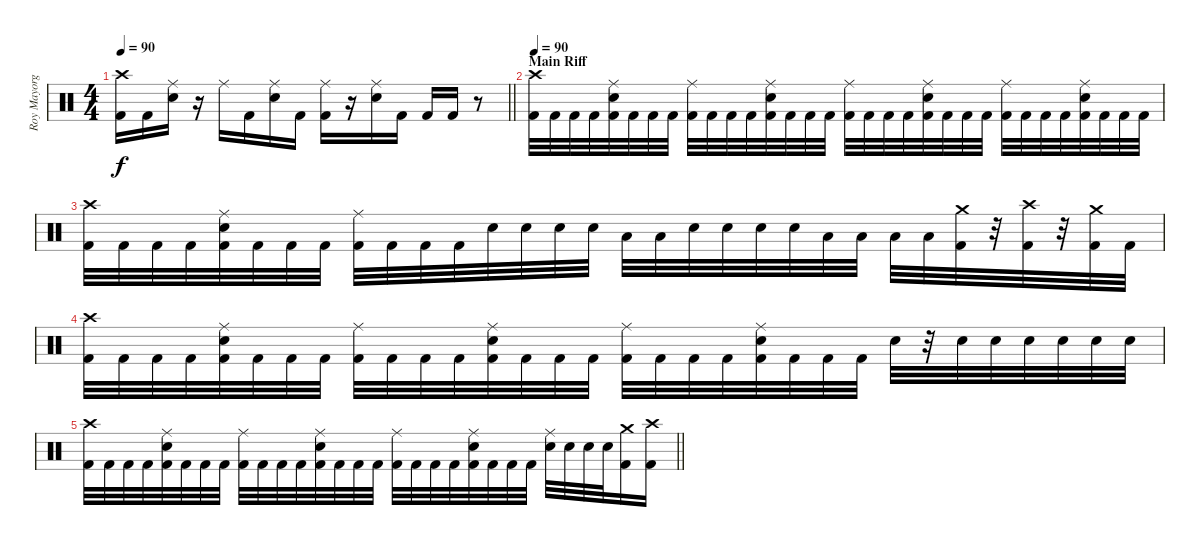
\track ("Roy Mayorga" "Roy Mayorg") {instrument percussion}
\staff {score}
\articulation defaults
\ts (4 4)
\tempo 90
\clef neutral
\barLineRight lightlight
\ks c
("Kick (hit) 2" "Crash high (hit)").16{dy f} "Kick (hit) 2".16 ("Electric Snare (hit)" "Ride (middle)").16 r.16 "Ride (middle)".16 "Kick (hit) 2".16 ("Electric Snare (hit)" "Ride (middle)").16 "Kick (hit) 2".16 ("Kick (hit) 2" "Ride (middle)").16 r.16 ("Electric Snare (hit)" "Ride (middle)").16 "Kick (hit) 2".16 "Kick (hit) 2".16 "Kick (hit) 2".16 r.8 |
\section ("" "Main Riff")
\tempo 90
("Kick (hit) 2" "Crash high (hit)").32 "Kick (hit) 2".32 "Kick (hit) 2".32 "Kick (hit) 2".32 ("Kick (hit) 2" "Electric Snare (hit)" "Ride (middle)").32 "Kick (hit) 2".32 "Kick (hit) 2".32 "Kick (hit) 2".32 ("Kick (hit) 2" "Ride (middle)").32 "Kick (hit) 2".32 "Kick (hit) 2".32 "Kick (hit) 2".32 ("Kick (hit) 2" "Electric Snare (hit)" "Ride (middle)").32 "Kick (hit) 2".32 "Kick (hit) 2".32 "Kick (hit) 2".32 ("Kick (hit) 2" "Ride (middle)").32 "Kick (hit) 2".32 "Kick (hit) 2".32 "Kick (hit) 2".32 ("Kick (hit) 2" "Electric Snare (hit)" "Ride (middle)").32 "Kick (hit) 2".32 "Kick (hit) 2".32 "Kick (hit) 2".32 ("Kick (hit) 2" "Ride (middle)").32 "Kick (hit) 2".32 "Kick (hit) 2".32 "Kick (hit) 2".32 ("Kick (hit) 2" "Electric Snare (hit)" "Ride (middle)").32 "Kick (hit) 2".32 "Kick (hit) 2".32 "Kick (hit) 2".32 |
("Kick (hit) 2" "Crash high (hit)").32 "Kick (hit) 2".32 "Kick (hit) 2".32 "Kick (hit) 2".32 ("Kick (hit) 2" "Electric Snare (hit)" "Ride (middle)").32 "Kick (hit) 2".32 "Kick (hit) 2".32 "Kick (hit) 2".32 ("Kick (hit) 2" "Ride (middle)").32 "Kick (hit) 2".32 "Kick (hit) 2".32 "Kick (hit) 2".32 "Electric Snare (hit)".32 "Electric Snare (hit)".32 "Electric Snare (hit)".32 "Electric Snare (hit)".32 "Low Tom (hit)".32 "Low Tom (hit)".32 "Electric Snare (hit)".32 "Electric Snare (hit)".32 "Electric Snare (hit)".32 "Electric Snare (hit)".32 "Low Tom (hit)".32 "Low Tom (hit)".32 "Low Tom (hit)".32 "Low Tom (hit)".32 ("Kick (hit) 2" "Crash medium (hit)").32 r.32 ("Kick (hit) 2" "Crash high (hit)").32 r.32 ("Kick (hit) 2" "Crash medium (hit)").32 "Kick (hit) 2".32 |
("Kick (hit) 2" "Crash high (hit)").32 "Kick (hit) 2".32 "Kick (hit) 2".32 "Kick (hit) 2".32 ("Kick (hit) 2" "Electric Snare (hit)" "Ride (middle)").32 "Kick (hit) 2".32 "Kick (hit) 2".32 "Kick (hit) 2".32 ("Kick (hit) 2" "Ride (middle)").32 "Kick (hit) 2".32 "Kick (hit) 2".32 "Kick (hit) 2".32 ("Kick (hit) 2" "Electric Snare (hit)" "Ride (middle)").32 "Kick (hit) 2".32 "Kick (hit) 2".32 "Kick (hit) 2".32 ("Kick (hit) 2" "Ride (middle)").32 "Kick (hit) 2".32 "Kick (hit) 2".32 "Kick (hit) 2".32 ("Kick (hit) 2" "Electric Snare (hit)" "Ride (middle)").32 "Kick (hit) 2".32 "Kick (hit) 2".32 "Kick (hit) 2".32 "Electric Snare (hit)".32 r.32 "Electric Snare (hit)".32 "Electric Snare (hit)".32 "Electric Snare (hit)".32 "Electric Snare (hit)".32 "Electric Snare (hit)".32 "Electric Snare (hit)".32 |
\barLineRight lightlight
("Kick (hit) 2" "Crash high (hit)").32 "Kick (hit) 2".32 "Kick (hit) 2".32 "Kick (hit) 2".32 ("Kick (hit) 2" "Electric Snare (hit)" "Ride (middle)").32 "Kick (hit) 2".32 "Kick (hit) 2".32 "Kick (hit) 2".32 ("Kick (hit) 2" "Ride (middle)").32 "Kick (hit) 2".32 "Kick (hit) 2".32 "Kick (hit) 2".32 ("Kick (hit) 2" "Electric Snare (hit)" "Ride (middle)").32 "Kick (hit) 2".32 "Kick (hit) 2".32 "Kick (hit) 2".32 ("Kick (hit) 2" "Ride (middle)").32 "Kick (hit) 2".32 "Kick (hit) 2".32 "Kick (hit) 2".32 ("Kick (hit) 2" "Electric Snare (hit)" "Ride (middle)").32 "Kick (hit) 2".32 "Kick (hit) 2".32 "Kick (hit) 2".32 ("Electric Snare (hit)" "Ride (middle)").32 "Electric Snare (hit)".32 "Electric Snare (hit)".32 "Electric Snare (hit)".32 ("Kick (hit) 2" "Crash medium (hit)").16 ("Kick (hit) 2" "Crash high (hit)").16
